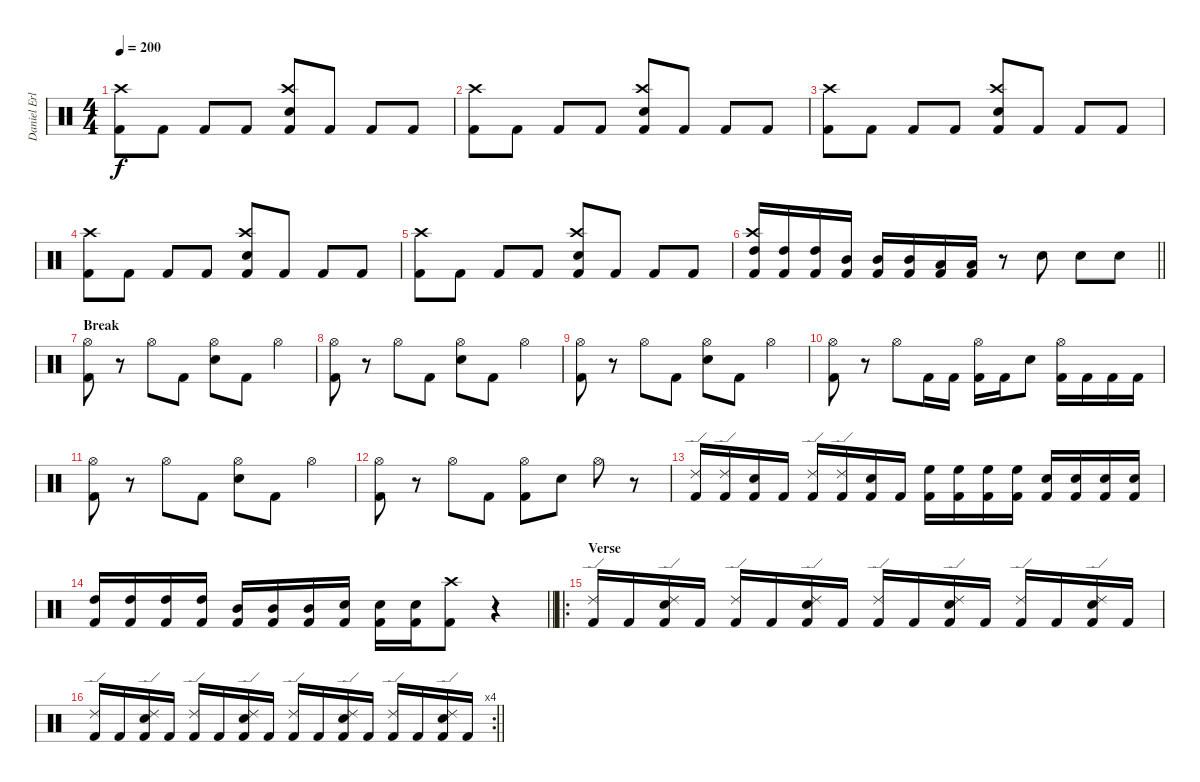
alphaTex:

\track ("Daniel Erlandsson" "Daniel Erl") {instrument percussion}
\staff {score}
\articulation defaults
\ts (4 4)
\tempo 200
\clef neutral
\ks c
("Kick (hit) 2" "Crash high (hit)").8{dy f} "Kick (hit) 2".8 "Kick (hit) 2".8 "Kick (hit) 2".8 ("Kick (hit) 2" "Snare (hit) 2" "Crash high (hit)").8 "Kick (hit) 2".8 "Kick (hit) 2".8 "Kick (hit) 2".8 |
("Kick (hit) 2" "Crash high (hit)").8 "Kick (hit) 2".8 "Kick (hit) 2".8 "Kick (hit) 2".8 ("Kick (hit) 2" "Snare (hit) 2" "Crash high (hit)").8 "Kick (hit) 2".8 "Kick (hit) 2".8 "Kick (hit) 2".8 |
("Kick (hit) 2" "Crash high (hit)").8 "Kick (hit) 2".8 "Kick (hit) 2".8 "Kick (hit) 2".8 ("Kick (hit) 2" "Snare (hit) 2" "Crash high (hit)").8 "Kick (hit) 2".8 "Kick (hit) 2".8 "Kick (hit) 2".8 |
("Kick (hit) 2" "Crash high (hit)").8 "Kick (hit) 2".8 "Kick (hit) 2".8 "Kick (hit) 2".8 ("Kick (hit) 2" "Snare (hit) 2" "Crash high (hit)").8 "Kick (hit) 2".8 "Kick (hit) 2".8 "Kick (hit) 2".8 |
("Kick (hit) 2" "Crash high (hit)").8 "Kick (hit) 2".8 "Kick (hit) 2".8 "Kick (hit) 2".8 ("Kick (hit) 2" "Snare (hit) 2" "Crash high (hit)").8 "Kick (hit) 2".8 "Kick (hit) 2".8 "Kick (hit) 2".8 |
\barLineRight lightlight
("Kick (hit) 2" "High Tom (hit)" "Crash high (hit)").16 ("Kick (hit) 2" "High Tom (hit)").16 ("Kick (hit) 2" "High Tom (hit)").16 ("Kick (hit) 2" "Mid Tom (hit)").16 ("Kick (hit) 2" "Mid Tom (hit)").16 ("Kick (hit) 2" "Mid Tom (hit)").16 ("Kick (hit) 2" "Low Tom (hit)").16 ("Kick (hit) 2" "Low Tom (hit)").16 r.8 "Snare (hit) 2".8 "Snare (hit) 2".8 "Snare (hit) 2".8 |
\section ("" "Break")
("Kick (hit) 2" "Hi-Hat (open)").8 r.8 "Hi-Hat (open)".8 "Kick (hit) 2".8 ("Snare (hit) 2" "Hi-Hat (open)").8 "Kick (hit) 2".8 "Hi-Hat (open)".4 |
("Kick (hit) 2" "Hi-Hat (open)").8 r.8 "Hi-Hat (open)".8 "Kick (hit) 2".8 ("Snare (hit) 2" "Hi-Hat (open)").8 "Kick (hit) 2".8 "Hi-Hat (open)".4 |
("Kick (hit) 2" "Hi-Hat (open)").8 r.8 "Hi-Hat (open)".8 "Kick (hit) 2".8 ("Snare (hit) 2" "Hi-Hat (open)").8 "Kick (hit) 2".8 "Hi-Hat (open)".4 |
("Kick (hit) 2" "Hi-Hat (open)").8 r.8 "Hi-Hat (open)".8 "Kick (hit) 2".16 "Kick (hit) 2".16 ("Kick (hit) 2" "Hi-Hat (open)").16 "Kick (hit) 2".16 "Snare (hit) 2".8 ("Kick (hit) 2" "Hi-Hat (open)").16 "Kick (hit) 2".16 "Kick (hit) 2".16 "Kick (hit) 2".16 |
("Kick (hit) 2" "Hi-Hat (open)").8 r.8 "Hi-Hat (open)".8 "Kick (hit) 2".8 ("Snare (hit) 2" "Hi-Hat (open)").8 "Kick (hit) 2".8 "Hi-Hat (open)".4 |
("Kick (hit) 2" "Hi-Hat (open)").8 r.8 "Hi-Hat (open)".8 "Kick (hit) 2".8 ("Kick (hit) 2" "Hi-Hat (open)").8 "Snare (hit) 2".8 "Hi-Hat (open)".8 r.8 |
("Kick (hit) 2" "Ride (edge) 2").16 ("Kick (hit) 2" "Ride (edge) 2").16 ("Kick (hit) 2" "Snare (hit) 2").16 "Kick (hit) 2".16 ("Kick (hit) 2" "Ride (edge) 2").16 ("Kick (hit) 2" "Ride (edge) 2").16 ("Kick (hit) 2" "Snare (hit) 2").16 "Kick (hit) 2".16 ("Kick (hit) 2" "High Floor Tom (hit)").16 ("Kick (hit) 2" "High Floor Tom (hit)").16 ("Kick (hit) 2" "High Floor Tom (hit)").16 ("Kick (hit) 2" "High Floor Tom (hit)").16 ("Kick (hit) 2" "Snare (hit) 2").16 ("Kick (hit) 2" "Snare (hit) 2").16 ("Kick (hit) 2" "Snare (hit) 2").16 ("Kick (hit) 2" "Snare (hit) 2").16 |
\barLineRight lightlight
("Kick (hit) 2" "High Tom (hit)").16 ("Kick (hit) 2" "High Tom (hit)").16 ("Kick (hit) 2" "High Tom (hit)").16 ("Kick (hit) 2" "High Tom (hit)").16 ("Kick (hit) 2" "Mid Tom (hit)").16 ("Kick (hit) 2" "Mid Tom (hit)").16 ("Kick (hit) 2" "Mid Tom (hit)").16 ("Kick (hit) 2" "Snare (hit) 2").16 ("Kick (hit) 2" "Snare (hit) 2").16 ("Kick (hit) 2" "Snare (hit) 2").16 ("Kick (hit) 2" "Crash high (hit)").8 r.4 |
\ro
\section ("" "Verse")
("Kick (hit) 2" "Ride (edge) 2").16 "Kick (hit) 2".16 ("Kick (hit) 2" "Snare (hit) 2" "Ride (edge) 2").16 "Kick (hit) 2".16 ("Kick (hit) 2" "Ride (edge) 2").16 "Kick (hit) 2".16 ("Kick (hit) 2" "Snare (hit) 2" "Ride (edge) 2").16 "Kick (hit) 2".16 ("Kick (hit) 2" "Ride (edge) 2").16 "Kick (hit) 2".16 ("Kick (hit) 2" "Snare (hit) 2" "Ride (edge) 2").16 "Kick (hit) 2".16 ("Kick (hit) 2" "Ride (edge) 2").16 "Kick (hit) 2".16 ("Kick (hit) 2" "Snare (hit) 2" "Ride (edge) 2").16 "Kick (hit) 2".16 |
\rc 4
\barLineRight lightlight
("Kick (hit) 2" "Ride (edge) 2").16 "Kick (hit) 2".16 ("Kick (hit) 2" "Snare (hit) 2" "Ride (edge) 2").16 "Kick (hit) 2".16 ("Kick (hit) 2" "Ride (edge) 2").16 "Kick (hit) 2".16 ("Kick (hit) 2" "Snare (hit) 2" "Ride (edge) 2").16 "Kick (hit) 2".16 ("Kick (hit) 2" "Ride (edge) 2").16 "Kick (hit) 2".16 ("Kick (hit) 2" "Snare (hit) 2" "Ride (edge) 2").16 "Kick (hit) 2".16 ("Kick (hit) 2" "Ride (edge) 2").16 "Kick (hit) 2".16 ("Kick (hit) 2" "Snare (hit) 2" "Ride (edge) 2").16 "Kick (hit) 2".16
